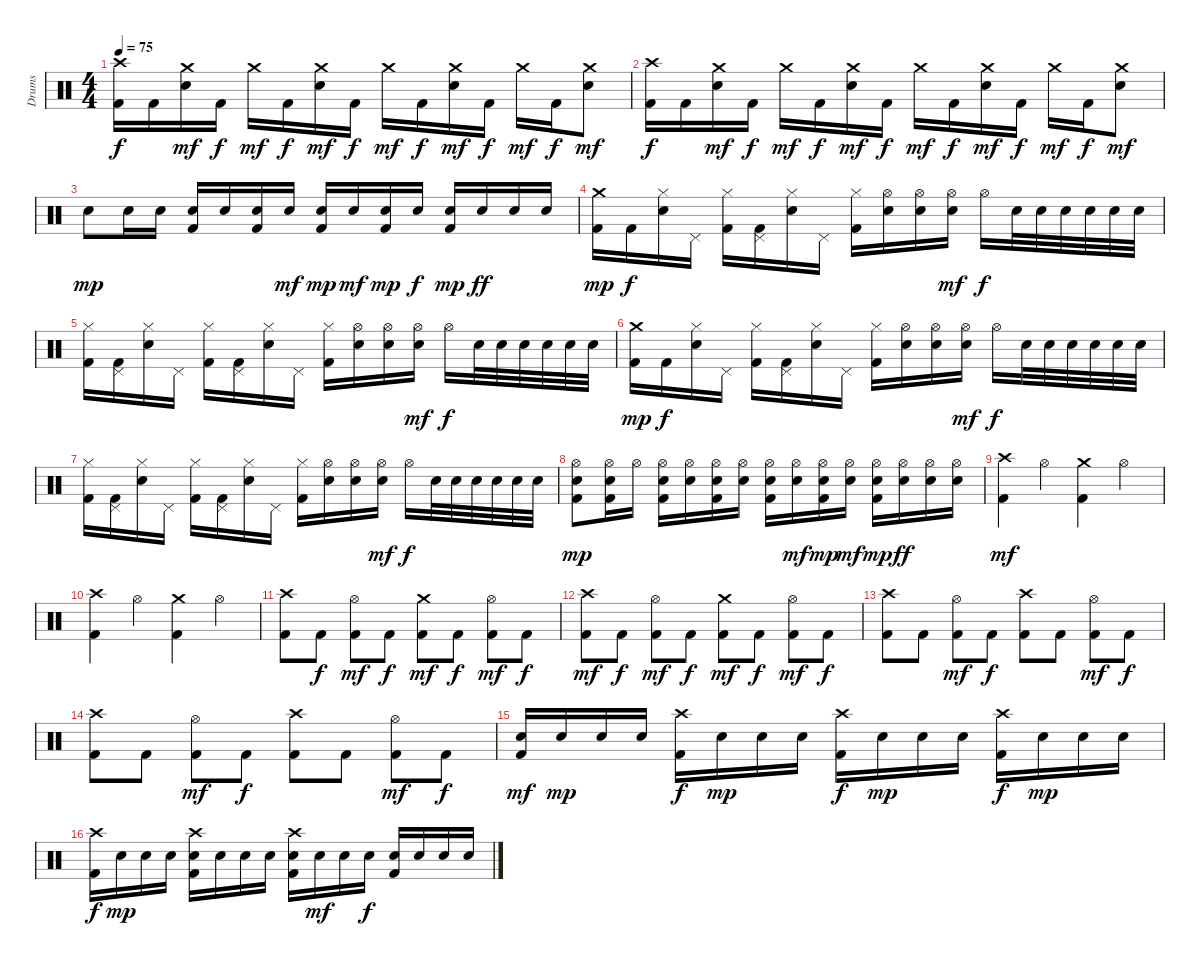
\track ("Drums" "Drums") {instrument percussion}
\staff {score}
\articulation defaults
\ts (4 4)
\tempo 75
\clef neutral
\ks c
("Crash high (hit)" "Kick (hit) 2").16{dy f} "Kick (hit) 2".16 ("Crash medium (hit)" "Electric Snare (hit)").16{dy mf} "Kick (hit) 2".16{dy f} "Crash medium (hit)".16{dy mf} "Kick (hit) 2".16{dy f} ("Crash medium (hit)" "Electric Snare (hit)").16{dy mf} "Kick (hit) 2".16{dy f} "Crash medium (hit)".16{dy mf} "Kick (hit) 2".16{dy f} ("Crash medium (hit)" "Electric Snare (hit)").16{dy mf} "Kick (hit) 2".16{dy f} "Crash medium (hit)".16{dy mf} "Kick (hit) 2".16{dy f} ("Crash medium (hit)" "Electric Snare (hit)").8{dy mf} |
("Crash high (hit)" "Kick (hit) 2").16{dy f} "Kick (hit) 2".16 ("Crash medium (hit)" "Electric Snare (hit)").16{dy mf} "Kick (hit) 2".16{dy f} "Crash medium (hit)".16{dy mf} "Kick (hit) 2".16{dy f} ("Crash medium (hit)" "Electric Snare (hit)").16{dy mf} "Kick (hit) 2".16{dy f} "Crash medium (hit)".16{dy mf} "Kick (hit) 2".16{dy f} ("Crash medium (hit)" "Electric Snare (hit)").16{dy mf} "Kick (hit) 2".16{dy f} "Crash medium (hit)".16{dy mf} "Kick (hit) 2".16{dy f} ("Crash medium (hit)" "Electric Snare (hit)").8{dy mf} |
"Electric Snare (hit)".8{dy mp} "Electric Snare (hit)".16 "Electric Snare (hit)".16 ("Electric Snare (hit)" "Kick (hit) 2").16 "Electric Snare (hit)".16 ("Electric Snare (hit)" "Kick (hit) 2").16 "Electric Snare (hit)".16{dy mf} ("Electric Snare (hit)" "Kick (hit) 2").16{dy mp} "Electric Snare (hit)".16{dy mf} ("Electric Snare (hit)" "Kick (hit) 2").16{dy mp} "Electric Snare (hit)".16{dy f} ("Electric Snare (hit)" "Kick (hit) 2").16{dy mp} "Electric Snare (hit)".16{dy ff} "Electric Snare (hit)".16 "Electric Snare (hit)".16 |
("Crash medium (hit)" "Kick (hit) 2").16{dy mp} "Kick (hit) 2".16{dy f} ("Hi-Hat (closed)" "Electric Snare (hit)").16 "Pedal Hi-Hat (hit)".16 ("Hi-Hat (closed)" "Kick (hit) 2").16 ("Pedal Hi-Hat (hit)" "Kick (hit) 2").16 ("Hi-Hat (closed)" "Electric Snare (hit)").16 "Pedal Hi-Hat (hit)".16 ("Hi-Hat (closed)" "Kick (hit) 2").16 ("Hi-Hat (open)" "Electric Snare (hit)").16 ("Hi-Hat (open)" "Electric Snare (hit)").16 ("Hi-Hat (open)" "Electric Snare (hit)").16{dy mf} "Hi-Hat (open)".16{dy f} "Electric Snare (hit)".32 "Electric Snare (hit)".32 "Electric Snare (hit)".32 "Electric Snare (hit)".32 "Electric Snare (hit)".32 "Electric Snare (hit)".32 |
("Hi-Hat (closed)" "Kick (hit) 2").16 ("Pedal Hi-Hat (hit)" "Kick (hit) 2").16 ("Hi-Hat (closed)" "Electric Snare (hit)").16 "Pedal Hi-Hat (hit)".16 ("Hi-Hat (closed)" "Kick (hit) 2").16 ("Pedal Hi-Hat (hit)" "Kick (hit) 2").16 ("Hi-Hat (closed)" "Electric Snare (hit)").16 "Pedal Hi-Hat (hit)".16 ("Hi-Hat (closed)" "Kick (hit) 2").16 ("Hi-Hat (open)" "Electric Snare (hit)").16 ("Hi-Hat (open)" "Electric Snare (hit)").16 ("Hi-Hat (open)" "Electric Snare (hit)").16{dy mf} "Hi-Hat (open)".16{dy f} "Electric Snare (hit)".32 "Electric Snare (hit)".32 "Electric Snare (hit)".32 "Electric Snare (hit)".32 "Electric Snare (hit)".32 "Electric Snare (hit)".32 |
("Crash medium (hit)" "Kick (hit) 2").16{dy mp} "Kick (hit) 2".16{dy f} ("Hi-Hat (closed)" "Electric Snare (hit)").16 "Pedal Hi-Hat (hit)".16 ("Hi-Hat (closed)" "Kick (hit) 2").16 ("Pedal Hi-Hat (hit)" "Kick (hit) 2").16 ("Hi-Hat (closed)" "Electric Snare (hit)").16 "Pedal Hi-Hat (hit)".16 ("Hi-Hat (closed)" "Kick (hit) 2").16 ("Hi-Hat (open)" "Electric Snare (hit)").16 ("Hi-Hat (open)" "Electric Snare (hit)").16 ("Hi-Hat (open)" "Electric Snare (hit)").16{dy mf} "Hi-Hat (open)".16{dy f} "Electric Snare (hit)".32 "Electric Snare (hit)".32 "Electric Snare (hit)".32 "Electric Snare (hit)".32 "Electric Snare (hit)".32 "Electric Snare (hit)".32 |
("Hi-Hat (closed)" "Kick (hit) 2").16 ("Pedal Hi-Hat (hit)" "Kick (hit) 2").16 ("Hi-Hat (closed)" "Electric Snare (hit)").16 "Pedal Hi-Hat (hit)".16 ("Hi-Hat (closed)" "Kick (hit) 2").16 ("Pedal Hi-Hat (hit)" "Kick (hit) 2").16 ("Hi-Hat (closed)" "Electric Snare (hit)").16 "Pedal Hi-Hat (hit)".16 ("Hi-Hat (closed)" "Kick (hit) 2").16 ("Hi-Hat (open)" "Electric Snare (hit)").16 ("Hi-Hat (open)" "Electric Snare (hit)").16 ("Hi-Hat (open)" "Electric Snare (hit)").16{dy mf} "Hi-Hat (open)".16{dy f} "Electric Snare (hit)".32 "Electric Snare (hit)".32 "Electric Snare (hit)".32 "Electric Snare (hit)".32 "Electric Snare (hit)".32 "Electric Snare (hit)".32 |
("Hi-Hat (open)" "Electric Snare (hit)" "Kick (hit) 2").8{dy mp} ("Hi-Hat (open)" "Electric Snare (hit)" "Kick (hit) 2").16 "Hi-Hat (open)".16 ("Hi-Hat (open)" "Electric Snare (hit)" "Kick (hit) 2").16 ("Hi-Hat (open)" "Electric Snare (hit)").16 ("Hi-Hat (open)" "Electric Snare (hit)" "Kick (hit) 2").16 ("Hi-Hat (open)" "Electric Snare (hit)").16 ("Hi-Hat (open)" "Electric Snare (hit)" "Kick (hit) 2").16 ("Hi-Hat (open)" "Electric Snare (hit)").16{dy mf} ("Hi-Hat (open)" "Electric Snare (hit)" "Kick (hit) 2").16{dy mp} ("Hi-Hat (open)" "Electric Snare (hit)").16{dy mf} ("Hi-Hat (open)" "Electric Snare (hit)" "Kick (hit) 2").16{dy mp} ("Hi-Hat (open)" "Electric Snare (hit)").16{dy ff} ("Hi-Hat (open)" "Electric Snare (hit)").16 ("Hi-Hat (open)" "Electric Snare (hit)").16 |
("Crash high (hit)" "Kick (hit) 2").4{dy mf} "Hi-Hat (open)".4 ("Crash medium (hit)" "Kick (hit) 2").4 "Hi-Hat (open)".4 |
("Crash high (hit)" "Kick (hit) 2").4 "Hi-Hat (open)".4 ("Crash medium (hit)" "Kick (hit) 2").4 "Hi-Hat (open)".4 |
("Crash high (hit)" "Kick (hit) 2").8 "Kick (hit) 2".8{dy f} ("Hi-Hat (open)" "Kick (hit) 2").8{dy mf} "Kick (hit) 2".8{dy f} ("Crash medium (hit)" "Kick (hit) 2").8{dy mf} "Kick (hit) 2".8{dy f} ("Hi-Hat (open)" "Kick (hit) 2").8{dy mf} "Kick (hit) 2".8{dy f} |
("Crash high (hit)" "Kick (hit) 2").8{dy mf} "Kick (hit) 2".8{dy f} ("Hi-Hat (open)" "Kick (hit) 2").8{dy mf} "Kick (hit) 2".8{dy f} ("Crash medium (hit)" "Kick (hit) 2").8{dy mf} "Kick (hit) 2".8{dy f} ("Hi-Hat (open)" "Kick (hit) 2").8{dy mf} "Kick (hit) 2".8{dy f} |
("Crash high (hit)" "Kick (hit) 2").8 "Kick (hit) 2".8 ("Hi-Hat (open)" "Kick (hit) 2").8{dy mf} "Kick (hit) 2".8{dy f} ("Crash high (hit)" "Kick (hit) 2").8 "Kick (hit) 2".8 ("Hi-Hat (open)" "Kick (hit) 2").8{dy mf} "Kick (hit) 2".8{dy f} |
("Crash high (hit)" "Kick (hit) 2").8 "Kick (hit) 2".8 ("Hi-Hat (open)" "Kick (hit) 2").8{dy mf} "Kick (hit) 2".8{dy f} ("Crash high (hit)" "Kick (hit) 2").8 "Kick (hit) 2".8 ("Hi-Hat (open)" "Kick (hit) 2").8{dy mf} "Kick (hit) 2".8{dy f} |
("Electric Snare (hit)" "Kick (hit) 2").16{dy mf} "Electric Snare (hit)".16{dy mp} "Electric Snare (hit)".16 "Electric Snare (hit)".16 ("Crash high (hit)" "Kick (hit) 2").16{dy f} "Electric Snare (hit)".16{dy mp} "Electric Snare (hit)".16 "Electric Snare (hit)".16 ("Crash high (hit)" "Kick (hit) 2").16{dy f} "Electric Snare (hit)".16{dy mp} "Electric Snare (hit)".16 "Electric Snare (hit)".16 ("Crash high (hit)" "Kick (hit) 2").16{dy f} "Electric Snare (hit)".16{dy mp} "Electric Snare (hit)".16 "Electric Snare (hit)".16 |
("Crash high (hit)" "Kick (hit) 2").16{dy f} "Electric Snare (hit)".16{dy mp} "Electric Snare (hit)".16 "Electric Snare (hit)".16 ("Crash high (hit)" "Electric Snare (hit)" "Kick (hit) 2").16 "Electric Snare (hit)".16 "Electric Snare (hit)".16 "Electric Snare (hit)".16 ("Crash high (hit)" "Electric Snare (hit)" "Kick (hit) 2").16 "Electric Snare (hit)".16{dy mf} "Electric Snare (hit)".16 "Electric Snare (hit)".16{dy f} ("Electric Snare (hit)" "Kick (hit) 2").16 "Electric Snare (hit)".16 "Electric Snare (hit)".16 "Electric Snare (hit)".16
